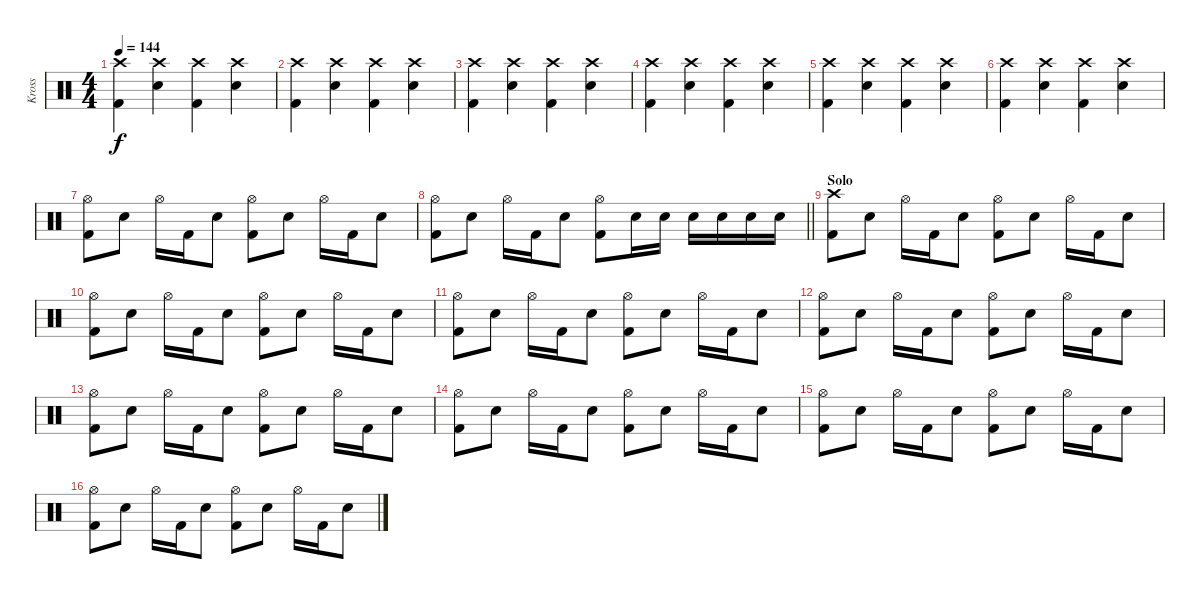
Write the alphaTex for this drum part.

\track ("Kross" "Kross") {instrument percussion}
\staff {score}
\articulation defaults
\ts (4 4)
\tempo 144
\clef neutral
\ks c
("Crash high (hit)" "Kick (hit) 2").4{dy f} ("Crash high (hit)" "Electric Snare (hit)").4 ("Crash high (hit)" "Kick (hit) 2").4 ("Crash high (hit)" "Electric Snare (hit)").4 |
("Crash high (hit)" "Kick (hit) 2").4 ("Crash high (hit)" "Electric Snare (hit)").4 ("Crash high (hit)" "Kick (hit) 2").4 ("Crash high (hit)" "Electric Snare (hit)").4 |
("Crash high (hit)" "Kick (hit) 2").4 ("Crash high (hit)" "Electric Snare (hit)").4 ("Crash high (hit)" "Kick (hit) 2").4 ("Crash high (hit)" "Electric Snare (hit)").4 |
("Crash high (hit)" "Kick (hit) 2").4 ("Crash high (hit)" "Electric Snare (hit)").4 ("Crash high (hit)" "Kick (hit) 2").4 ("Crash high (hit)" "Electric Snare (hit)").4 |
("Crash high (hit)" "Kick (hit) 2").4 ("Crash high (hit)" "Electric Snare (hit)").4 ("Crash high (hit)" "Kick (hit) 2").4 ("Crash high (hit)" "Electric Snare (hit)").4 |
("Crash high (hit)" "Kick (hit) 2").4 ("Crash high (hit)" "Electric Snare (hit)").4 ("Crash high (hit)" "Kick (hit) 2").4 ("Crash high (hit)" "Electric Snare (hit)").4 |
("Hi-Hat (open)" "Kick (hit) 2").8 "Electric Snare (hit)".8 "Hi-Hat (open)".16 "Kick (hit) 2".16 "Electric Snare (hit)".8 ("Hi-Hat (open)" "Kick (hit) 2").8 "Electric Snare (hit)".8 "Hi-Hat (open)".16 "Kick (hit) 2".16 "Electric Snare (hit)".8 |
\barLineRight lightlight
("Hi-Hat (open)" "Kick (hit) 2").8 "Electric Snare (hit)".8 "Hi-Hat (open)".16 "Kick (hit) 2".16 "Electric Snare (hit)".8 ("Hi-Hat (open)" "Kick (hit) 2").8 "Electric Snare (hit)".16 "Electric Snare (hit)".16 "Electric Snare (hit)".16 "Electric Snare (hit)".16 "Electric Snare (hit)".16 "Electric Snare (hit)".16 |
\section ("" "Solo")
("Crash high (hit)" "Kick (hit) 2").8 "Electric Snare (hit)".8 "Hi-Hat (open)".16 "Kick (hit) 2".16 "Electric Snare (hit)".8 ("Hi-Hat (open)" "Kick (hit) 2").8 "Electric Snare (hit)".8 "Hi-Hat (open)".16 "Kick (hit) 2".16 "Electric Snare (hit)".8 |
("Hi-Hat (open)" "Kick (hit) 2").8 "Electric Snare (hit)".8 "Hi-Hat (open)".16 "Kick (hit) 2".16 "Electric Snare (hit)".8 ("Hi-Hat (open)" "Kick (hit) 2").8 "Electric Snare (hit)".8 "Hi-Hat (open)".16 "Kick (hit) 2".16 "Electric Snare (hit)".8 |
("Hi-Hat (open)" "Kick (hit) 2").8 "Electric Snare (hit)".8 "Hi-Hat (open)".16 "Kick (hit) 2".16 "Electric Snare (hit)".8 ("Hi-Hat (open)" "Kick (hit) 2").8 "Electric Snare (hit)".8 "Hi-Hat (open)".16 "Kick (hit) 2".16 "Electric Snare (hit)".8 |
("Hi-Hat (open)" "Kick (hit) 2").8 "Electric Snare (hit)".8 "Hi-Hat (open)".16 "Kick (hit) 2".16 "Electric Snare (hit)".8 ("Hi-Hat (open)" "Kick (hit) 2").8 "Electric Snare (hit)".8 "Hi-Hat (open)".16 "Kick (hit) 2".16 "Electric Snare (hit)".8 |
("Hi-Hat (open)" "Kick (hit) 2").8 "Electric Snare (hit)".8 "Hi-Hat (open)".16 "Kick (hit) 2".16 "Electric Snare (hit)".8 ("Hi-Hat (open)" "Kick (hit) 2").8 "Electric Snare (hit)".8 "Hi-Hat (open)".16 "Kick (hit) 2".16 "Electric Snare (hit)".8 |
("Hi-Hat (open)" "Kick (hit) 2").8 "Electric Snare (hit)".8 "Hi-Hat (open)".16 "Kick (hit) 2".16 "Electric Snare (hit)".8 ("Hi-Hat (open)" "Kick (hit) 2").8 "Electric Snare (hit)".8 "Hi-Hat (open)".16 "Kick (hit) 2".16 "Electric Snare (hit)".8 |
("Hi-Hat (open)" "Kick (hit) 2").8 "Electric Snare (hit)".8 "Hi-Hat (open)".16 "Kick (hit) 2".16 "Electric Snare (hit)".8 ("Hi-Hat (open)" "Kick (hit) 2").8 "Electric Snare (hit)".8 "Hi-Hat (open)".16 "Kick (hit) 2".16 "Electric Snare (hit)".8 |
("Hi-Hat (open)" "Kick (hit) 2").8 "Electric Snare (hit)".8 "Hi-Hat (open)".16 "Kick (hit) 2".16 "Electric Snare (hit)".8 ("Hi-Hat (open)" "Kick (hit) 2").8 "Electric Snare (hit)".8 "Hi-Hat (open)".16 "Kick (hit) 2".16 "Electric Snare (hit)".8
